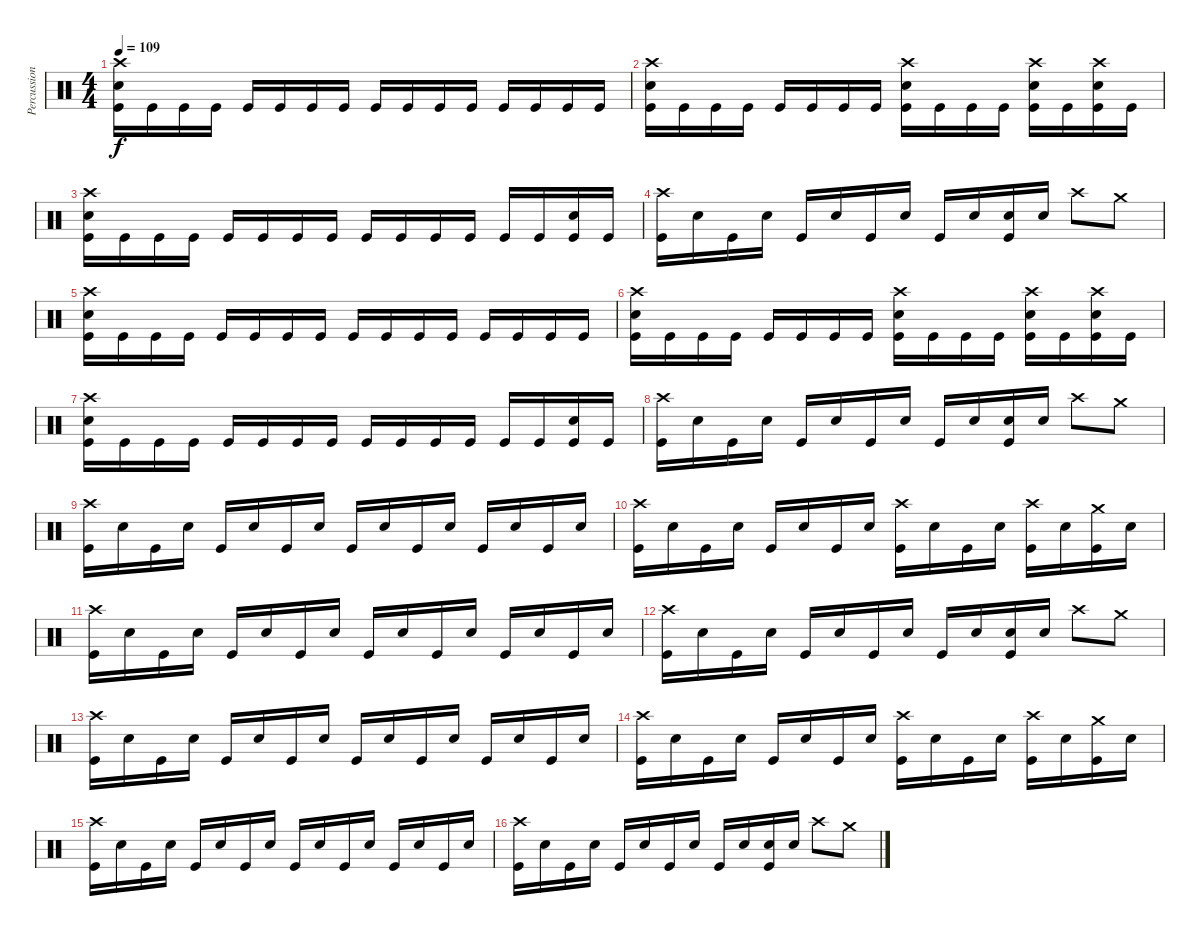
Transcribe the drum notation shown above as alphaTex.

\track ("Percussions" "Percussion") {instrument percussion}
\staff {score}
\articulation defaults
\ts (4 4)
\tempo 109
\clef neutral
\ks c
("Kick (hit)" "Electric Snare (hit)" "Crash high (hit)").16{dy f} "Kick (hit)".16 "Kick (hit)".16 "Kick (hit)".16 "Kick (hit)".16 "Kick (hit)".16 "Kick (hit)".16 "Kick (hit)".16 "Kick (hit)".16 "Kick (hit)".16 "Kick (hit)".16 "Kick (hit)".16 "Kick (hit)".16 "Kick (hit)".16 "Kick (hit)".16 "Kick (hit)".16 |
("Kick (hit)" "Electric Snare (hit)" "Crash high (hit)").16 "Kick (hit)".16 "Kick (hit)".16 "Kick (hit)".16 "Kick (hit)".16 "Kick (hit)".16 "Kick (hit)".16 "Kick (hit)".16 ("Kick (hit)" "Electric Snare (hit)" "Crash high (hit)").16 "Kick (hit)".16 "Kick (hit)".16 "Kick (hit)".16 ("Kick (hit)" "Electric Snare (hit)" "Crash high (hit)").16 "Kick (hit)".16 ("Kick (hit)" "Electric Snare (hit)" "Crash high (hit)").16 "Kick (hit)".16 |
("Kick (hit)" "Electric Snare (hit)" "Crash high (hit)").16 "Kick (hit)".16 "Kick (hit)".16 "Kick (hit)".16 "Kick (hit)".16 "Kick (hit)".16 "Kick (hit)".16 "Kick (hit)".16 "Kick (hit)".16 "Kick (hit)".16 "Kick (hit)".16 "Kick (hit)".16 "Kick (hit)".16 "Kick (hit)".16 ("Kick (hit)" "Electric Snare (hit)").16 "Kick (hit)".16 |
("Kick (hit)" "Crash high (hit)").16 "Electric Snare (hit)".16 "Kick (hit)".16 "Electric Snare (hit)".16 "Kick (hit)".16 "Electric Snare (hit)".16 "Kick (hit)".16 "Electric Snare (hit)".16 "Kick (hit)".16 "Electric Snare (hit)".16 ("Kick (hit)" "Electric Snare (hit)").16 "Electric Snare (hit)".16 "Crash high (hit)".8 "Crash medium (hit)".8 |
("Kick (hit)" "Electric Snare (hit)" "Crash high (hit)").16 "Kick (hit)".16 "Kick (hit)".16 "Kick (hit)".16 "Kick (hit)".16 "Kick (hit)".16 "Kick (hit)".16 "Kick (hit)".16 "Kick (hit)".16 "Kick (hit)".16 "Kick (hit)".16 "Kick (hit)".16 "Kick (hit)".16 "Kick (hit)".16 "Kick (hit)".16 "Kick (hit)".16 |
("Kick (hit)" "Electric Snare (hit)" "Crash high (hit)").16 "Kick (hit)".16 "Kick (hit)".16 "Kick (hit)".16 "Kick (hit)".16 "Kick (hit)".16 "Kick (hit)".16 "Kick (hit)".16 ("Kick (hit)" "Electric Snare (hit)" "Crash high (hit)").16 "Kick (hit)".16 "Kick (hit)".16 "Kick (hit)".16 ("Kick (hit)" "Electric Snare (hit)" "Crash high (hit)").16 "Kick (hit)".16 ("Kick (hit)" "Electric Snare (hit)" "Crash high (hit)").16 "Kick (hit)".16 |
("Kick (hit)" "Electric Snare (hit)" "Crash high (hit)").16 "Kick (hit)".16 "Kick (hit)".16 "Kick (hit)".16 "Kick (hit)".16 "Kick (hit)".16 "Kick (hit)".16 "Kick (hit)".16 "Kick (hit)".16 "Kick (hit)".16 "Kick (hit)".16 "Kick (hit)".16 "Kick (hit)".16 "Kick (hit)".16 ("Kick (hit)" "Electric Snare (hit)").16 "Kick (hit)".16 |
("Kick (hit)" "Crash high (hit)").16 "Electric Snare (hit)".16 "Kick (hit)".16 "Electric Snare (hit)".16 "Kick (hit)".16 "Electric Snare (hit)".16 "Kick (hit)".16 "Electric Snare (hit)".16 "Kick (hit)".16 "Electric Snare (hit)".16 ("Kick (hit)" "Electric Snare (hit)").16 "Electric Snare (hit)".16 "Crash high (hit)".8 "Crash medium (hit)".8 |
("Kick (hit)" "Crash high (hit)").16 "Electric Snare (hit)".16 "Kick (hit)".16 "Electric Snare (hit)".16 "Kick (hit)".16 "Electric Snare (hit)".16 "Kick (hit)".16 "Electric Snare (hit)".16 "Kick (hit)".16 "Electric Snare (hit)".16 "Kick (hit)".16 "Electric Snare (hit)".16 "Kick (hit)".16 "Electric Snare (hit)".16 "Kick (hit)".16 "Electric Snare (hit)".16 |
("Kick (hit)" "Crash high (hit)").16 "Electric Snare (hit)".16 "Kick (hit)".16 "Electric Snare (hit)".16 "Kick (hit)".16 "Electric Snare (hit)".16 "Kick (hit)".16 "Electric Snare (hit)".16 ("Kick (hit)" "Crash high (hit)").16 "Electric Snare (hit)".16 "Kick (hit)".16 "Electric Snare (hit)".16 ("Kick (hit)" "Crash high (hit)").16 "Electric Snare (hit)".16 ("Kick (hit)" "Crash medium (hit)").16 "Electric Snare (hit)".16 |
("Kick (hit)" "Crash high (hit)").16 "Electric Snare (hit)".16 "Kick (hit)".16 "Electric Snare (hit)".16 "Kick (hit)".16 "Electric Snare (hit)".16 "Kick (hit)".16 "Electric Snare (hit)".16 "Kick (hit)".16 "Electric Snare (hit)".16 "Kick (hit)".16 "Electric Snare (hit)".16 "Kick (hit)".16 "Electric Snare (hit)".16 "Kick (hit)".16 "Electric Snare (hit)".16 |
("Kick (hit)" "Crash high (hit)").16 "Electric Snare (hit)".16 "Kick (hit)".16 "Electric Snare (hit)".16 "Kick (hit)".16 "Electric Snare (hit)".16 "Kick (hit)".16 "Electric Snare (hit)".16 "Kick (hit)".16 "Electric Snare (hit)".16 ("Kick (hit)" "Electric Snare (hit)").16 "Electric Snare (hit)".16 "Crash high (hit)".8 "Crash medium (hit)".8 |
("Kick (hit)" "Crash high (hit)").16 "Electric Snare (hit)".16 "Kick (hit)".16 "Electric Snare (hit)".16 "Kick (hit)".16 "Electric Snare (hit)".16 "Kick (hit)".16 "Electric Snare (hit)".16 "Kick (hit)".16 "Electric Snare (hit)".16 "Kick (hit)".16 "Electric Snare (hit)".16 "Kick (hit)".16 "Electric Snare (hit)".16 "Kick (hit)".16 "Electric Snare (hit)".16 |
("Kick (hit)" "Crash high (hit)").16 "Electric Snare (hit)".16 "Kick (hit)".16 "Electric Snare (hit)".16 "Kick (hit)".16 "Electric Snare (hit)".16 "Kick (hit)".16 "Electric Snare (hit)".16 ("Kick (hit)" "Crash high (hit)").16 "Electric Snare (hit)".16 "Kick (hit)".16 "Electric Snare (hit)".16 ("Kick (hit)" "Crash high (hit)").16 "Electric Snare (hit)".16 ("Kick (hit)" "Crash medium (hit)").16 "Electric Snare (hit)".16 |
("Kick (hit)" "Crash high (hit)").16 "Electric Snare (hit)".16 "Kick (hit)".16 "Electric Snare (hit)".16 "Kick (hit)".16 "Electric Snare (hit)".16 "Kick (hit)".16 "Electric Snare (hit)".16 "Kick (hit)".16 "Electric Snare (hit)".16 "Kick (hit)".16 "Electric Snare (hit)".16 "Kick (hit)".16 "Electric Snare (hit)".16 "Kick (hit)".16 "Electric Snare (hit)".16 |
("Kick (hit)" "Crash high (hit)").16 "Electric Snare (hit)".16 "Kick (hit)".16 "Electric Snare (hit)".16 "Kick (hit)".16 "Electric Snare (hit)".16 "Kick (hit)".16 "Electric Snare (hit)".16 "Kick (hit)".16 "Electric Snare (hit)".16 ("Kick (hit)" "Electric Snare (hit)").16 "Electric Snare (hit)".16 "Crash high (hit)".8 "Crash medium (hit)".8
